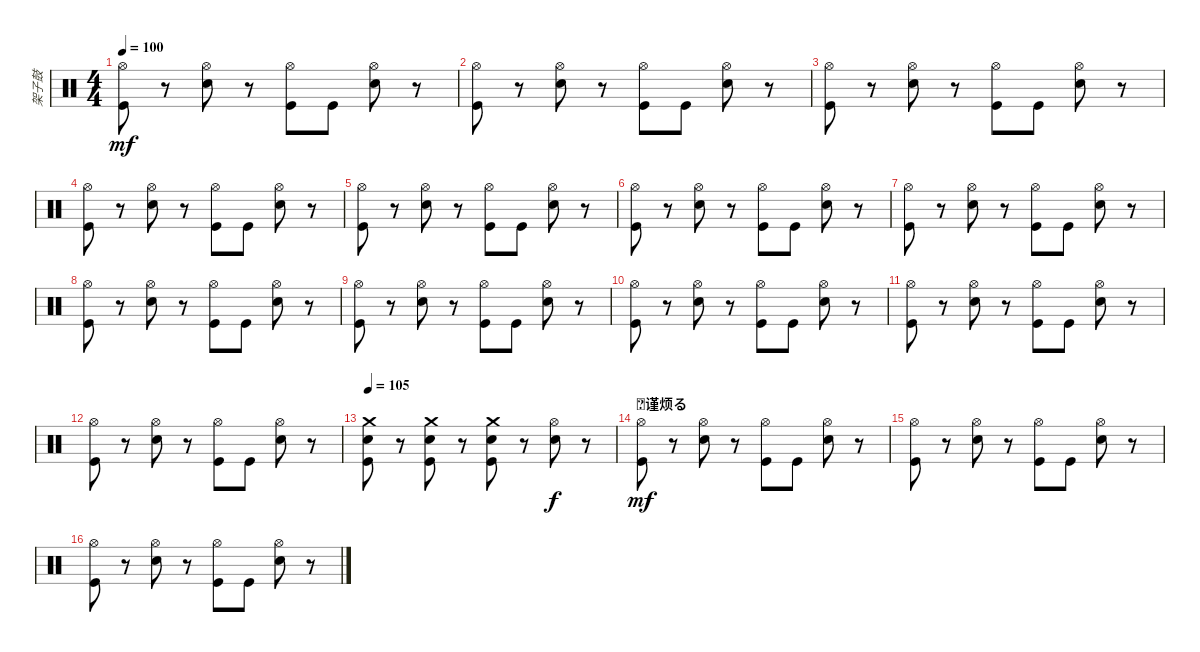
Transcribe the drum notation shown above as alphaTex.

\track ("架子鼓" "架子鼓") {instrument percussion}
\staff {score}
\articulation defaults
\ts (4 4)
\tempo 100
\clef neutral
\ks c
("Hi-Hat (open)" "Kick (hit)").8{dy mf} r.8 ("Hi-Hat (open)" "Snare (hit) 2").8 r.8 ("Hi-Hat (open)" "Kick (hit)").8 "Kick (hit)".8 ("Hi-Hat (open)" "Snare (hit) 2").8 r.8 |
("Hi-Hat (open)" "Kick (hit)").8 r.8 ("Hi-Hat (open)" "Snare (hit) 2").8 r.8 ("Hi-Hat (open)" "Kick (hit)").8 "Kick (hit)".8 ("Hi-Hat (open)" "Snare (hit) 2").8 r.8 |
("Hi-Hat (open)" "Kick (hit)").8 r.8 ("Hi-Hat (open)" "Snare (hit) 2").8 r.8 ("Hi-Hat (open)" "Kick (hit)").8 "Kick (hit)".8 ("Hi-Hat (open)" "Snare (hit) 2").8 r.8 |
("Hi-Hat (open)" "Kick (hit)").8 r.8 ("Hi-Hat (open)" "Snare (hit) 2").8 r.8 ("Hi-Hat (open)" "Kick (hit)").8 "Kick (hit)".8 ("Hi-Hat (open)" "Snare (hit) 2").8 r.8 |
("Hi-Hat (open)" "Kick (hit)").8 r.8 ("Hi-Hat (open)" "Snare (hit) 2").8 r.8 ("Hi-Hat (open)" "Kick (hit)").8 "Kick (hit)".8 ("Hi-Hat (open)" "Snare (hit) 2").8 r.8 |
("Hi-Hat (open)" "Kick (hit)").8 r.8 ("Hi-Hat (open)" "Snare (hit) 2").8 r.8 ("Hi-Hat (open)" "Kick (hit)").8 "Kick (hit)".8 ("Hi-Hat (open)" "Snare (hit) 2").8 r.8 |
("Hi-Hat (open)" "Kick (hit)").8 r.8 ("Hi-Hat (open)" "Snare (hit) 2").8 r.8 ("Hi-Hat (open)" "Kick (hit)").8 "Kick (hit)".8 ("Hi-Hat (open)" "Snare (hit) 2").8 r.8 |
("Hi-Hat (open)" "Kick (hit)").8 r.8 ("Hi-Hat (open)" "Snare (hit) 2").8 r.8 ("Hi-Hat (open)" "Kick (hit)").8 "Kick (hit)".8 ("Hi-Hat (open)" "Snare (hit) 2").8 r.8 |
("Hi-Hat (open)" "Kick (hit)").8 r.8 ("Hi-Hat (open)" "Snare (hit) 2").8 r.8 ("Hi-Hat (open)" "Kick (hit)").8 "Kick (hit)".8 ("Hi-Hat (open)" "Snare (hit) 2").8 r.8 |
("Hi-Hat (open)" "Kick (hit)").8 r.8 ("Hi-Hat (open)" "Snare (hit) 2").8 r.8 ("Hi-Hat (open)" "Kick (hit)").8 "Kick (hit)".8 ("Hi-Hat (open)" "Snare (hit) 2").8 r.8 |
("Hi-Hat (open)" "Kick (hit)").8 r.8 ("Hi-Hat (open)" "Snare (hit) 2").8 r.8 ("Hi-Hat (open)" "Kick (hit)").8 "Kick (hit)".8 ("Hi-Hat (open)" "Snare (hit) 2").8 r.8 |
("Hi-Hat (open)" "Kick (hit)").8 r.8 ("Hi-Hat (open)" "Snare (hit) 2").8 r.8 ("Hi-Hat (open)" "Kick (hit)").8 "Kick (hit)".8 ("Hi-Hat (open)" "Snare (hit) 2").8 r.8 |
\tempo 105
("Crash medium (hit)" "Snare (hit) 2" "Kick (hit)").8 r.8 ("Crash medium (hit)" "Snare (hit) 2" "Kick (hit)").8 r.8 ("Crash medium (hit)" "Snare (hit) 2" "Kick (hit)").8 r.8 ("Hi-Hat (open)" "Snare (hit) 2").8{dy f} r.8 |
\section ("" "谨烦る  ")
("Hi-Hat (open)" "Kick (hit)").8{dy mf} r.8 ("Hi-Hat (open)" "Snare (hit) 2").8 r.8 ("Hi-Hat (open)" "Kick (hit)").8 "Kick (hit)".8 ("Hi-Hat (open)" "Snare (hit) 2").8 r.8 |
("Hi-Hat (open)" "Kick (hit)").8 r.8 ("Hi-Hat (open)" "Snare (hit) 2").8 r.8 ("Hi-Hat (open)" "Kick (hit)").8 "Kick (hit)".8 ("Hi-Hat (open)" "Snare (hit) 2").8 r.8 |
("Hi-Hat (open)" "Kick (hit)").8 r.8 ("Hi-Hat (open)" "Snare (hit) 2").8 r.8 ("Hi-Hat (open)" "Kick (hit)").8 "Kick (hit)".8 ("Hi-Hat (open)" "Snare (hit) 2").8 r.8
